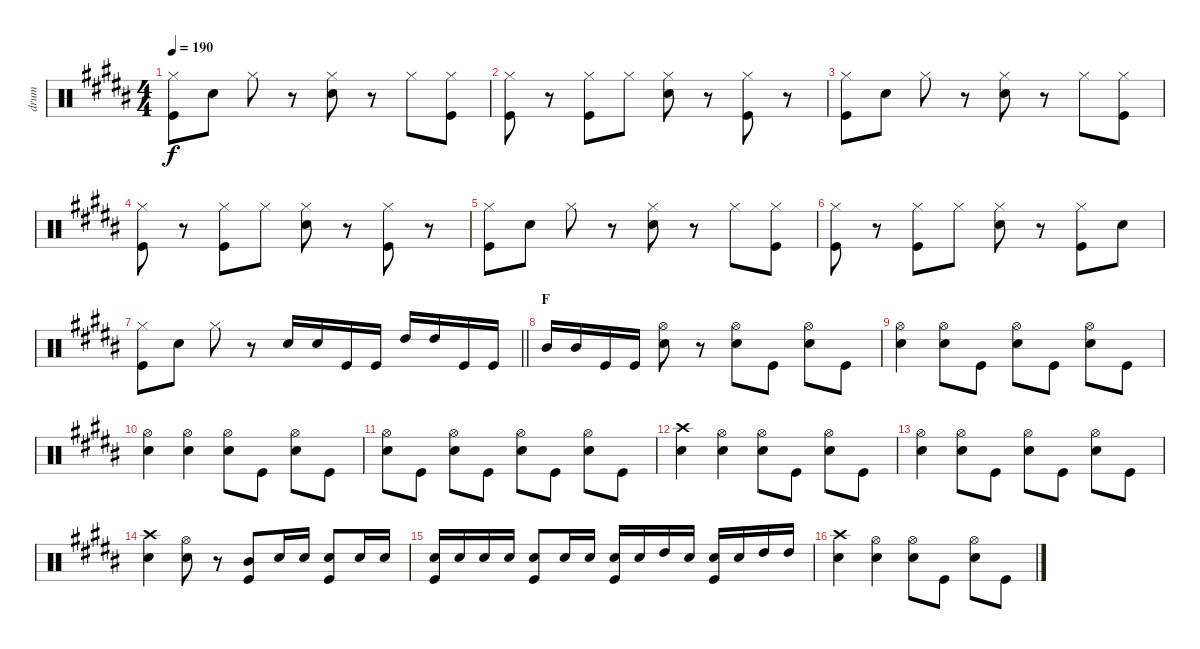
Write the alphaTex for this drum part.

\track ("drum" "drum") {instrument percussion}
\staff {score}
\articulation defaults
\ts (4 4)
\tempo 190
\clef neutral
\ks b
("Hi-Hat (closed)" "Kick (hit)").8{dy f} "Snare (hit) 2".8 "Hi-Hat (closed)".8 r.8 ("Hi-Hat (closed)" "Snare (hit) 2").8 r.8 "Hi-Hat (closed)".8 ("Hi-Hat (closed)" "Kick (hit)").8 |
("Hi-Hat (closed)" "Kick (hit)").8 r.8 ("Hi-Hat (closed)" "Kick (hit)").8 "Hi-Hat (closed)".8 ("Hi-Hat (closed)" "Snare (hit) 2").8 r.8 ("Hi-Hat (closed)" "Kick (hit)").8 r.8 |
("Hi-Hat (closed)" "Kick (hit)").8 "Snare (hit) 2".8 "Hi-Hat (closed)".8 r.8 ("Hi-Hat (closed)" "Snare (hit) 2").8 r.8 "Hi-Hat (closed)".8 ("Hi-Hat (closed)" "Kick (hit)").8 |
("Hi-Hat (closed)" "Kick (hit)").8 r.8 ("Hi-Hat (closed)" "Kick (hit)").8 "Hi-Hat (closed)".8 ("Hi-Hat (closed)" "Snare (hit) 2").8 r.8 ("Hi-Hat (closed)" "Kick (hit)").8 r.8 |
("Hi-Hat (closed)" "Kick (hit)").8 "Snare (hit) 2".8 "Hi-Hat (closed)".8 r.8 ("Hi-Hat (closed)" "Snare (hit) 2").8 r.8 "Hi-Hat (closed)".8 ("Hi-Hat (closed)" "Kick (hit)").8 |
("Hi-Hat (closed)" "Kick (hit)").8 r.8 ("Hi-Hat (closed)" "Kick (hit)").8 "Hi-Hat (closed)".8 ("Hi-Hat (closed)" "Snare (hit) 2").8 r.8 ("Hi-Hat (closed)" "Kick (hit)").8 "Snare (hit) 2".8 |
\barLineRight lightlight
("Hi-Hat (closed)" "Kick (hit)").8 "Snare (hit) 2".8 "Hi-Hat (closed)".8 r.8 "Snare (hit) 2".16 "Snare (hit) 2".16 "Kick (hit)".16 "Kick (hit)".16 "High Tom (hit)".16 "High Tom (hit)".16 "Kick (hit)".16 "Kick (hit)".16 |
\section ("" "F")
"Mid Tom (hit)".16 "Mid Tom (hit)".16 "Kick (hit)".16 "Kick (hit)".16 ("Hi-Hat (open)" "Snare (hit) 2").8 r.8 ("Hi-Hat (open)" "Snare (hit) 2").8 "Kick (hit)".8 ("Hi-Hat (open)" "Snare (hit) 2").8 "Kick (hit)".8 |
("Hi-Hat (open)" "Snare (hit) 2").4 ("Hi-Hat (open)" "Snare (hit) 2").8 "Kick (hit)".8 ("Hi-Hat (open)" "Snare (hit) 2").8 "Kick (hit)".8 ("Hi-Hat (open)" "Snare (hit) 2").8 "Kick (hit)".8 |
("Hi-Hat (open)" "Snare (hit) 2").4 ("Hi-Hat (open)" "Snare (hit) 2").4 ("Hi-Hat (open)" "Snare (hit) 2").8 "Kick (hit)".8 ("Hi-Hat (open)" "Snare (hit) 2").8 "Kick (hit)".8 |
("Hi-Hat (open)" "Snare (hit) 2").8 "Kick (hit)".8 ("Hi-Hat (open)" "Snare (hit) 2").8 "Kick (hit)".8 ("Hi-Hat (open)" "Snare (hit) 2").8 "Kick (hit)".8 ("Hi-Hat (open)" "Snare (hit) 2").8 "Kick (hit)".8 |
("Crash high (hit)" "Snare (hit) 2").4 ("Hi-Hat (open)" "Snare (hit) 2").4 ("Hi-Hat (open)" "Snare (hit) 2").8 "Kick (hit)".8 ("Hi-Hat (open)" "Snare (hit) 2").8 "Kick (hit)".8 |
("Hi-Hat (open)" "Snare (hit) 2").4 ("Hi-Hat (open)" "Snare (hit) 2").8 "Kick (hit)".8 ("Hi-Hat (open)" "Snare (hit) 2").8 "Kick (hit)".8 ("Hi-Hat (open)" "Snare (hit) 2").8 "Kick (hit)".8 |
("Crash high (hit)" "Snare (hit) 2").4 ("Hi-Hat (open)" "Snare (hit) 2").8 r.8 ("Mid Tom (hit)" "Kick (hit)").8 "Snare (hit) 2".16 "Snare (hit) 2".16 ("Snare (hit) 2" "Kick (hit)").8 "Snare (hit) 2".16 "Snare (hit) 2".16 |
("Snare (hit) 2" "Kick (hit)").16 "Snare (hit) 2".16 "Snare (hit) 2".16 "Snare (hit) 2".16 ("Snare (hit) 2" "Kick (hit)").8 "Snare (hit) 2".16 "Snare (hit) 2".16 ("Snare (hit) 2" "Kick (hit)").16 "Snare (hit) 2".16 "High Tom (hit)".16 "Snare (hit) 2".16 ("Snare (hit) 2" "Kick (hit)").16 "Snare (hit) 2".16 "High Tom (hit)".16 "High Tom (hit)".16 |
("Crash high (hit)" "Snare (hit) 2").4 ("Hi-Hat (open)" "Snare (hit) 2").4 ("Hi-Hat (open)" "Snare (hit) 2").8 "Kick (hit)".8 ("Hi-Hat (open)" "Snare (hit) 2").8 "Kick (hit)".8
